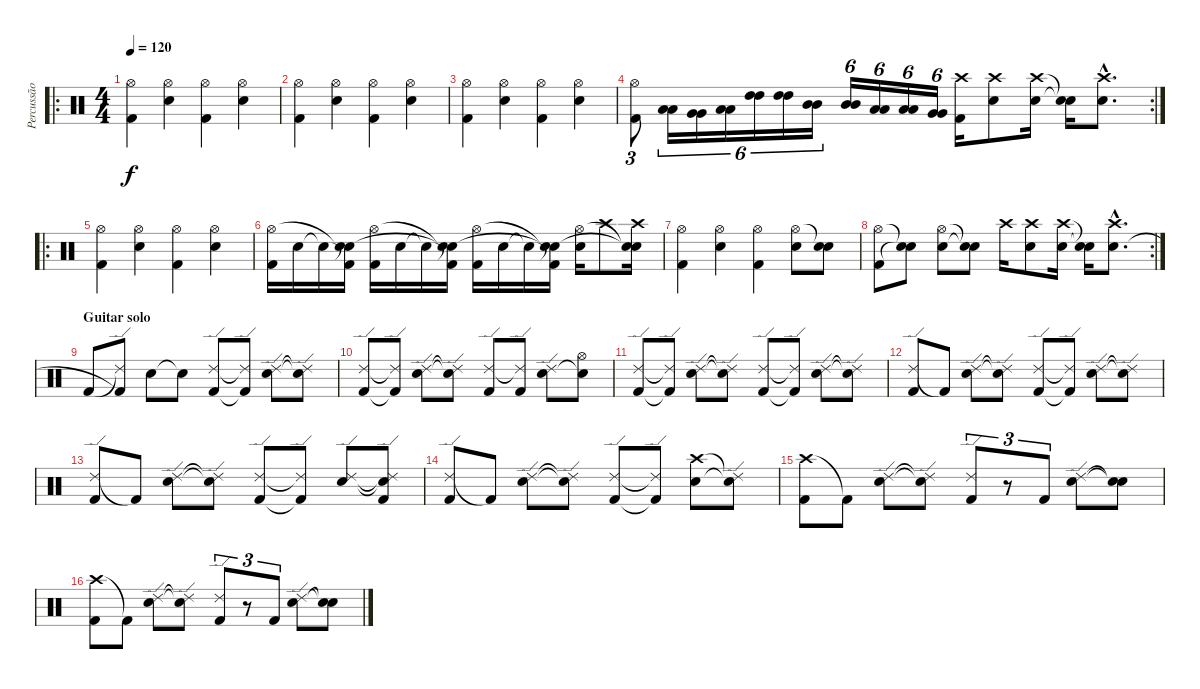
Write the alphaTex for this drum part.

\track ("Percussão" "Percussão") {instrument percussion}
\staff {score}
\articulation defaults
\ro
\ts (4 4)
\tempo 120
\clef neutral
\ks c
("Hi-Hat (open)" "Kick (hit) 2").4{dy f} ("Hi-Hat (open)" "Electric Snare (hit)").4 ("Hi-Hat (open)" "Kick (hit) 2").4 ("Hi-Hat (open)" "Electric Snare (hit)").4 |
("Hi-Hat (open)" "Kick (hit) 2").4 ("Hi-Hat (open)" "Electric Snare (hit)").4 ("Hi-Hat (open)" "Kick (hit) 2").4 ("Hi-Hat (open)" "Electric Snare (hit)").4 |
("Hi-Hat (open)" "Kick (hit) 2").4 ("Hi-Hat (open)" "Electric Snare (hit)").4 ("Hi-Hat (open)" "Kick (hit) 2").4 ("Hi-Hat (open)" "Electric Snare (hit)").4 |
\rc 2
("Hi-Hat (open)" "Kick (hit) 2").8{tu (3 2)} ("Low Floor Tom (hit)" "Low Floor Tom (hit)").16{tu (6 4)} ("Very Low Tom (hit)" "Very Low Tom (hit)").16{tu (6 4)} ("Low Tom (hit)" "Low Tom (hit)").16{tu (6 4)} ("High Tom (hit)" "High Tom (hit)").16{tu (6 4)} ("High Tom (hit)" "High Tom (hit)").16{tu (6 4)} ("Mid Tom (hit)" "Mid Tom (hit)").16{tu (6 4)} ("Mid Tom (hit)" "Mid Tom (hit)").16{tu (6 4)} ("Low Tom (hit)" "Low Tom (hit)").16{tu (6 4)} ("Low Tom (hit)" "Low Tom (hit)").16{tu (6 4)} ("Very Low Tom (hit)" "Very Low Tom (hit)").16{tu (6 4)} ("Crash high (hit)" "Kick (hit) 2").16 ("Crash high (hit)" "Electric Snare (hit)").8 ("Crash high (hit)" "Electric Snare (hit)").16 ("Snare (hit)"{t} "Snare (hit)"{t}).16 ("Crash high (hit)"{hac} "Electric Snare (hit)"{hac}).8{d} |
\ro
("Hi-Hat (open)" "Kick (hit) 2").4 ("Hi-Hat (open)" "Electric Snare (hit)").4 ("Hi-Hat (open)" "Kick (hit) 2").4 ("Hi-Hat (open)" "Electric Snare (hit)").4 |
("Kick (hit) 2" "Hi-Hat (open)").16 "Electric Snare (hit)".16 "Snare (hit)"{t}.16 ("Kick (hit) 2"{t} "Snare (hit)"{t} "Snare (hit)").16 ("Kick (hit) 2" "Hi-Hat (open)").16 "Electric Snare (hit)".16 "Snare (hit)"{t}.16 ("Kick (hit) 2"{t} "Snare (hit)"{t} "Snare (hit)"{t}).16 ("Kick (hit) 2" "Hi-Hat (open)").16 "Electric Snare (hit)".16 "Snare (hit)"{t}.16 ("Kick (hit) 2"{t} "Snare (hit)"{t} "Snare (hit)"{t}).16 ("Electric Snare (hit)" "Hi-Hat (open)").16 "Crash high (hit)".8 ("Crash high (hit)" "Snare (hit)"{t} "Snare (hit)"{t}).16 |
("Hi-Hat (open)" "Kick (hit) 2").4 ("Hi-Hat (open)" "Electric Snare (hit)").4 ("Hi-Hat (open)" "Kick (hit) 2").4 ("Hi-Hat (open)" "Electric Snare (hit)").8 ("Snare (hit)"{t} "Electric Snare (hit)").8 |
\rc 2
("Hi-Hat (open)" "Kick (hit) 2").8 ("Snare (hit)"{t} "Electric Snare (hit)"{t}).8 ("Hi-Hat (open)" "Electric Snare (hit)").8 ("Snare (hit)"{t} "Electric Snare (hit)"{t}).8 "Crash high (hit)".16 ("Crash high (hit)" "Electric Snare (hit)").8 ("Crash high (hit)" "Electric Snare (hit)").16 ("Snare (hit)"{t} "Snare (hit)"{t}).16 ("Crash high (hit)"{hac} "Electric Snare (hit)"{hac}).8{d} |
\section ("" "Guitar solo")
"Kick (hit) 2".8 ("Ride (edge) 2"{t} "Kick (hit) 2"{t}).8 "Electric Snare (hit)".8 "Electric Snare (hit)"{t}.8 ("Ride (edge) 2" "Kick (hit) 2").8 ("Ride (edge) 2"{t} "Kick (hit) 2"{t}).8 ("Ride (edge) 2" "Electric Snare (hit)").8 ("Ride (edge) 2"{t} "Electric Snare (hit)"{t}).8 |
("Ride (edge) 2" "Kick (hit) 2").8 ("Ride (edge) 2"{t} "Kick (hit) 2"{t}).8 ("Ride (edge) 2" "Electric Snare (hit)").8 ("Ride (edge) 2"{t} "Electric Snare (hit)"{t}).8 ("Ride (edge) 2" "Kick (hit) 2").8 ("Ride (edge) 2"{t} "Kick (hit) 2").8 ("Ride (edge) 2" "Electric Snare (hit)").8 ("Hi-Hat (open)" "Electric Snare (hit)"{t}).8 |
("Ride (edge) 2" "Kick (hit) 2").8 ("Ride (edge) 2"{t} "Kick (hit) 2"{t}).8 ("Ride (edge) 2" "Electric Snare (hit)").8 ("Ride (edge) 2"{t} "Electric Snare (hit)"{t}).8 ("Ride (edge) 2" "Kick (hit) 2").8 ("Ride (edge) 2"{t} "Kick (hit) 2"{t}).8 ("Ride (edge) 2" "Electric Snare (hit)").8 ("Ride (edge) 2"{t} "Electric Snare (hit)"{t}).8 |
("Ride (edge) 2" "Kick (hit) 2").8 "Kick (hit) 2"{t}.8 ("Ride (edge) 2" "Electric Snare (hit)").8 ("Ride (edge) 2"{t} "Electric Snare (hit)"{t}).8 ("Ride (edge) 2" "Kick (hit) 2").8 ("Ride (edge) 2"{t} "Kick (hit) 2"{t}).8 ("Ride (edge) 2" "Electric Snare (hit)").8 ("Ride (edge) 2"{t} "Electric Snare (hit)"{t}).8 |
("Ride (edge) 2" "Kick (hit) 2").8 "Kick (hit) 2"{t}.8 ("Ride (edge) 2" "Electric Snare (hit)").8 ("Ride (edge) 2"{t} "Electric Snare (hit)"{t}).8 ("Ride (edge) 2" "Kick (hit) 2").8 ("Ride (edge) 2"{t} "Kick (hit) 2"{t}).8 ("Ride (edge) 2" "Electric Snare (hit)").8 ("Ride (edge) 2"{t} "Electric Snare (hit)"{t} "Kick (hit) 2").8 |
("Ride (edge) 2" "Kick (hit) 2").8 "Kick (hit) 2"{t}.8 ("Ride (edge) 2" "Electric Snare (hit)").8 ("Ride (edge) 2"{t} "Electric Snare (hit)"{t}).8 ("Ride (edge) 2" "Kick (hit) 2").8 ("Ride (edge) 2"{t} "Kick (hit) 2"{t}).8 ("Crash high (hit)" "Electric Snare (hit)").8 ("Ride (edge) 2"{t} "Electric Snare (hit)"{t}).8 |
("Crash high (hit)" "Kick (hit) 2").8 "Kick (hit) 2"{t}.8 ("Ride (edge) 2" "Electric Snare (hit)").8 ("Ride (edge) 2"{t} "Electric Snare (hit)"{t}).8 ("Ride (edge) 2" "Kick (hit) 2").8{tu (3 2)} r.8{tu (3 2)} "Kick (hit) 2".8{tu (3 2)} ("Ride (edge) 2" "Electric Snare (hit)").8 ("Snare (hit)"{t} "Snare (hit)"{t}).8 |
("Crash high (hit)" "Kick (hit) 2").8 "Kick (hit) 2"{t}.8 ("Ride (edge) 2" "Electric Snare (hit)").8 ("Ride (edge) 2"{t} "Electric Snare (hit)"{t}).8 ("Ride (edge) 2" "Kick (hit) 2").8{tu (3 2)} r.8{tu (3 2)} "Kick (hit) 2".8{tu (3 2)} ("Ride (edge) 2" "Electric Snare (hit)").8 ("Snare (hit)"{t} "Snare (hit)"{t}).8
